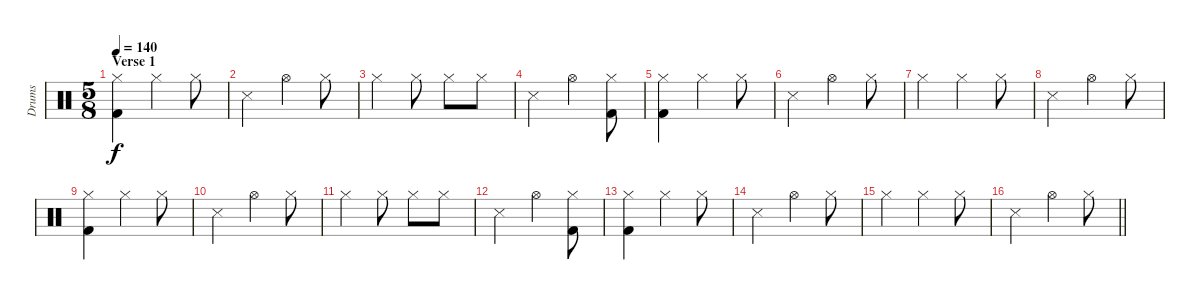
\track ("Drums" "Drums") {instrument percussion}
\staff {score}
\articulation defaults
\ts (5 8)
\section ("" "Verse 1")
\tempo 140
\clef neutral
\ks c
("Hi-Hat (closed)" "Kick (hit) 2").4{dy f} "Hi-Hat (closed)".4 "Hi-Hat (closed)".8 |
"Snare (side stick) 3".4 "Hi-Hat (open)".4 "Hi-Hat (closed)".8 |
"Hi-Hat (closed)".4 "Hi-Hat (closed)".8 "Hi-Hat (closed)".8 "Hi-Hat (closed)".8 |
"Snare (side stick) 3".4 "Hi-Hat (open)".4 ("Hi-Hat (closed)" "Kick (hit) 2").8 |
("Hi-Hat (closed)" "Kick (hit) 2").4 "Hi-Hat (closed)".4 "Hi-Hat (closed)".8 |
"Snare (side stick) 3".4 "Hi-Hat (open)".4 "Hi-Hat (closed)".8 |
"Hi-Hat (closed)".4 "Hi-Hat (closed)".4 "Hi-Hat (closed)".8 |
"Snare (side stick) 3".4 "Hi-Hat (open)".4 "Hi-Hat (closed)".8 |
("Hi-Hat (closed)" "Kick (hit) 2").4 "Hi-Hat (closed)".4 "Hi-Hat (closed)".8 |
"Snare (side stick) 3".4 "Hi-Hat (open)".4 "Hi-Hat (closed)".8 |
"Hi-Hat (closed)".4 "Hi-Hat (closed)".8 "Hi-Hat (closed)".8 "Hi-Hat (closed)".8 |
"Snare (side stick) 3".4 "Hi-Hat (open)".4 ("Hi-Hat (closed)" "Kick (hit) 2").8 |
("Hi-Hat (closed)" "Kick (hit) 2").4 "Hi-Hat (closed)".4 "Hi-Hat (closed)".8 |
"Snare (side stick) 3".4 "Hi-Hat (open)".4 "Hi-Hat (closed)".8 |
"Hi-Hat (closed)".4 "Hi-Hat (closed)".4 "Hi-Hat (closed)".8 |
\barLineRight lightlight "Snare (side stick) 3".4 "Hi-Hat (open)".4 "Hi-Hat (closed)".8
